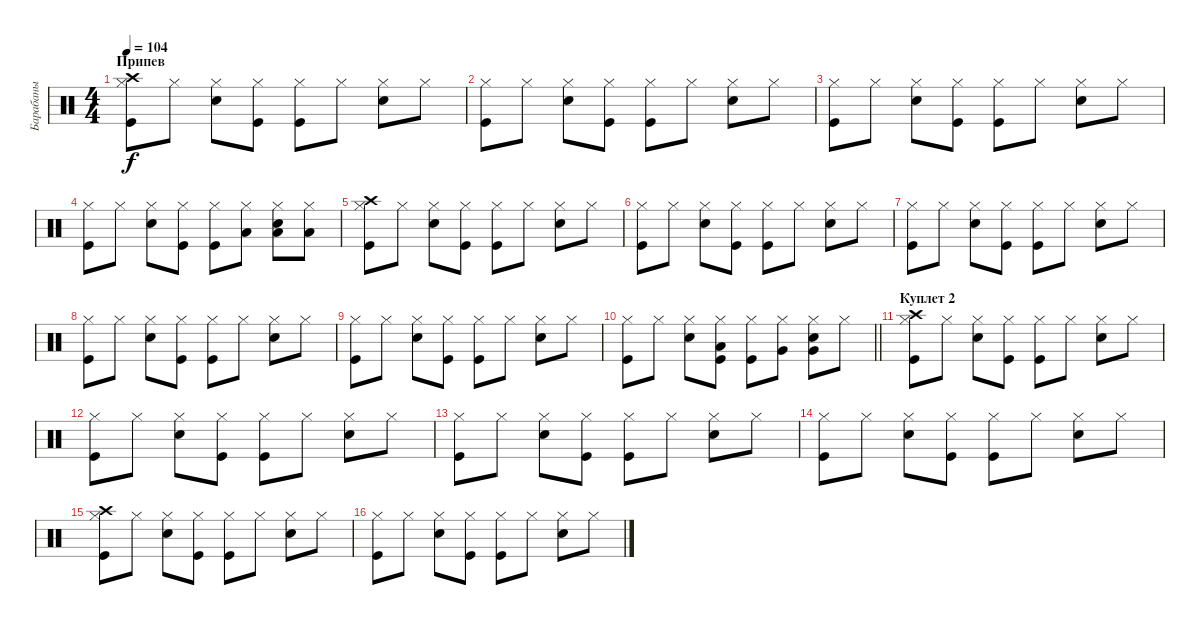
\track ("Барабаны" "Барабаны") {instrument percussion}
\staff {score}
\articulation defaults
\ts (4 4)
\section ("" "Припев")
\tempo 104
\clef neutral
\ks c
("Kick (hit)" "Hi-Hat (closed)" "Crash high (hit)").8{dy f} "Hi-Hat (closed)".8 ("Snare (hit) 2" "Hi-Hat (closed)").8 ("Kick (hit)" "Hi-Hat (closed)").8 ("Kick (hit)" "Hi-Hat (closed)").8 "Hi-Hat (closed)".8 ("Snare (hit) 2" "Hi-Hat (closed)").8 "Hi-Hat (closed)".8 |
("Kick (hit)" "Hi-Hat (closed)").8 "Hi-Hat (closed)".8 ("Snare (hit) 2" "Hi-Hat (closed)").8 ("Kick (hit)" "Hi-Hat (closed)").8 ("Kick (hit)" "Hi-Hat (closed)").8 "Hi-Hat (closed)".8 ("Snare (hit) 2" "Hi-Hat (closed)").8 "Hi-Hat (closed)".8 |
("Kick (hit)" "Hi-Hat (closed)").8 "Hi-Hat (closed)".8 ("Snare (hit) 2" "Hi-Hat (closed)").8 ("Kick (hit)" "Hi-Hat (closed)").8 ("Kick (hit)" "Hi-Hat (closed)").8 "Hi-Hat (closed)".8 ("Snare (hit) 2" "Hi-Hat (closed)").8 "Hi-Hat (closed)".8 |
("Kick (hit)" "Hi-Hat (closed)").8 "Hi-Hat (closed)".8 ("Snare (hit) 2" "Hi-Hat (closed)").8 ("Kick (hit)" "Hi-Hat (closed)").8 ("Kick (hit)" "Hi-Hat (closed)").8 ("Hi-Hat (closed)" "Low Tom (hit)").8 ("Snare (hit) 2" "Hi-Hat (closed)" "Low Tom (hit)").8 ("Hi-Hat (closed)" "Low Tom (hit)").8 |
("Kick (hit)" "Hi-Hat (closed)" "Crash high (hit)").8 "Hi-Hat (closed)".8 ("Snare (hit) 2" "Hi-Hat (closed)").8 ("Kick (hit)" "Hi-Hat (closed)").8 ("Kick (hit)" "Hi-Hat (closed)").8 "Hi-Hat (closed)".8 ("Snare (hit) 2" "Hi-Hat (closed)").8 "Hi-Hat (closed)".8 |
("Kick (hit)" "Hi-Hat (closed)").8 "Hi-Hat (closed)".8 ("Snare (hit) 2" "Hi-Hat (closed)").8 ("Kick (hit)" "Hi-Hat (closed)").8 ("Kick (hit)" "Hi-Hat (closed)").8 "Hi-Hat (closed)".8 ("Snare (hit) 2" "Hi-Hat (closed)").8 "Hi-Hat (closed)".8 |
("Kick (hit)" "Hi-Hat (closed)").8 "Hi-Hat (closed)".8 ("Snare (hit) 2" "Hi-Hat (closed)").8 ("Kick (hit)" "Hi-Hat (closed)").8 ("Kick (hit)" "Hi-Hat (closed)").8 "Hi-Hat (closed)".8 ("Snare (hit) 2" "Hi-Hat (closed)").8 "Hi-Hat (closed)".8 |
("Kick (hit)" "Hi-Hat (closed)").8 "Hi-Hat (closed)".8 ("Snare (hit) 2" "Hi-Hat (closed)").8 ("Kick (hit)" "Hi-Hat (closed)").8 ("Kick (hit)" "Hi-Hat (closed)").8 "Hi-Hat (closed)".8 ("Snare (hit) 2" "Hi-Hat (closed)").8 "Hi-Hat (closed)".8 |
("Kick (hit)" "Hi-Hat (closed)").8 "Hi-Hat (closed)".8 ("Snare (hit) 2" "Hi-Hat (closed)").8 ("Kick (hit)" "Hi-Hat (closed)").8 ("Kick (hit)" "Hi-Hat (closed)").8 "Hi-Hat (closed)".8 ("Snare (hit) 2" "Hi-Hat (closed)").8 "Hi-Hat (closed)".8 |
\barLineRight lightlight
("Kick (hit)" "Hi-Hat (closed)").8 "Hi-Hat (closed)".8 ("Snare (hit) 2" "Hi-Hat (closed)").8 ("Kick (hit)" "Hi-Hat (closed)" "Low Floor Tom (hit)").8 ("Kick (hit)" "Hi-Hat (closed)").8 ("Hi-Hat (closed)" "Very Low Tom (hit)").8 ("Snare (hit) 2" "Hi-Hat (closed)" "Very Low Tom (hit)").8 "Hi-Hat (closed)".8 |
\section ("" "Куплет 2")
("Kick (hit)" "Hi-Hat (closed)" "Crash high (hit)").8 "Hi-Hat (closed)".8 ("Snare (hit) 2" "Hi-Hat (closed)").8 ("Kick (hit)" "Hi-Hat (closed)").8 ("Kick (hit)" "Hi-Hat (closed)").8 "Hi-Hat (closed)".8 ("Snare (hit) 2" "Hi-Hat (closed)").8 "Hi-Hat (closed)".8 |
("Kick (hit)" "Hi-Hat (closed)").8 "Hi-Hat (closed)".8 ("Snare (hit) 2" "Hi-Hat (closed)").8 ("Kick (hit)" "Hi-Hat (closed)").8 ("Kick (hit)" "Hi-Hat (closed)").8 "Hi-Hat (closed)".8 ("Snare (hit) 2" "Hi-Hat (closed)").8 "Hi-Hat (closed)".8 |
("Kick (hit)" "Hi-Hat (closed)").8 "Hi-Hat (closed)".8 ("Snare (hit) 2" "Hi-Hat (closed)").8 ("Kick (hit)" "Hi-Hat (closed)").8 ("Kick (hit)" "Hi-Hat (closed)").8 "Hi-Hat (closed)".8 ("Snare (hit) 2" "Hi-Hat (closed)").8 "Hi-Hat (closed)".8 |
("Kick (hit)" "Hi-Hat (closed)").8 "Hi-Hat (closed)".8 ("Snare (hit) 2" "Hi-Hat (closed)").8 ("Kick (hit)" "Hi-Hat (closed)").8 ("Kick (hit)" "Hi-Hat (closed)").8 "Hi-Hat (closed)".8 ("Snare (hit) 2" "Hi-Hat (closed)").8 "Hi-Hat (closed)".8 |
("Kick (hit)" "Hi-Hat (closed)" "Crash high (hit)").8 "Hi-Hat (closed)".8 ("Snare (hit) 2" "Hi-Hat (closed)").8 ("Kick (hit)" "Hi-Hat (closed)").8 ("Kick (hit)" "Hi-Hat (closed)").8 "Hi-Hat (closed)".8 ("Snare (hit) 2" "Hi-Hat (closed)").8 "Hi-Hat (closed)".8 |
("Kick (hit)" "Hi-Hat (closed)").8 "Hi-Hat (closed)".8 ("Snare (hit) 2" "Hi-Hat (closed)").8 ("Kick (hit)" "Hi-Hat (closed)").8 ("Kick (hit)" "Hi-Hat (closed)").8 "Hi-Hat (closed)".8 ("Snare (hit) 2" "Hi-Hat (closed)").8 "Hi-Hat (closed)".8
